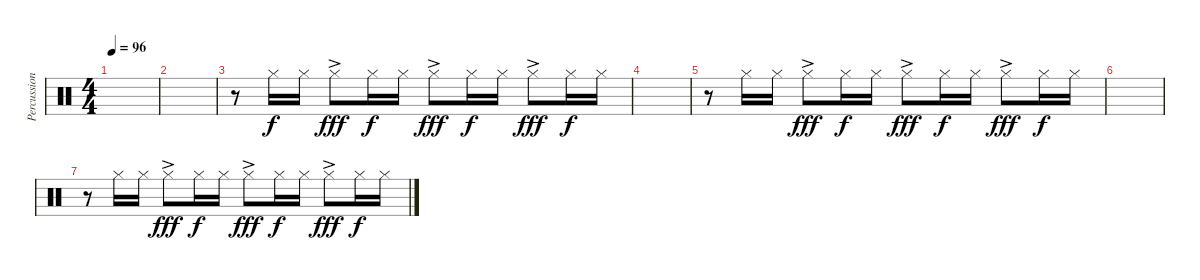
\track ("Percussions alto-ténor" "Percussion") {instrument percussion}
\staff {score}
\articulation defaults
\ts (4 4)
\tempo 96
\clef neutral
\ks c
|
|
r.8 "Hi-Hat (closed)".16 "Hi-Hat (closed)".16 "Hi-Hat (closed)"{ac}.8{dy fff} "Hi-Hat (closed)".16{dy f} "Hi-Hat (closed)".16 "Hi-Hat (closed)"{ac}.8{dy fff} "Hi-Hat (closed)".16{dy f} "Hi-Hat (closed)".16 "Hi-Hat (closed)"{ac}.8{dy fff} "Hi-Hat (closed)".16{dy f} "Hi-Hat (closed)".16 |
|
r.8 "Hi-Hat (closed)".16 "Hi-Hat (closed)".16 "Hi-Hat (closed)"{ac}.8{dy fff} "Hi-Hat (closed)".16{dy f} "Hi-Hat (closed)".16 "Hi-Hat (closed)"{ac}.8{dy fff} "Hi-Hat (closed)".16{dy f} "Hi-Hat (closed)".16 "Hi-Hat (closed)"{ac}.8{dy fff} "Hi-Hat (closed)".16{dy f} "Hi-Hat (closed)".16 |
|
r.8 "Hi-Hat (closed)".16 "Hi-Hat (closed)".16 "Hi-Hat (closed)"{ac}.8{dy fff} "Hi-Hat (closed)".16{dy f} "Hi-Hat (closed)".16 "Hi-Hat (closed)"{ac}.8{dy fff} "Hi-Hat (closed)".16{dy f} "Hi-Hat (closed)".16 "Hi-Hat (closed)"{ac}.8{dy fff} "Hi-Hat (closed)".16{dy f} "Hi-Hat (closed)".16
